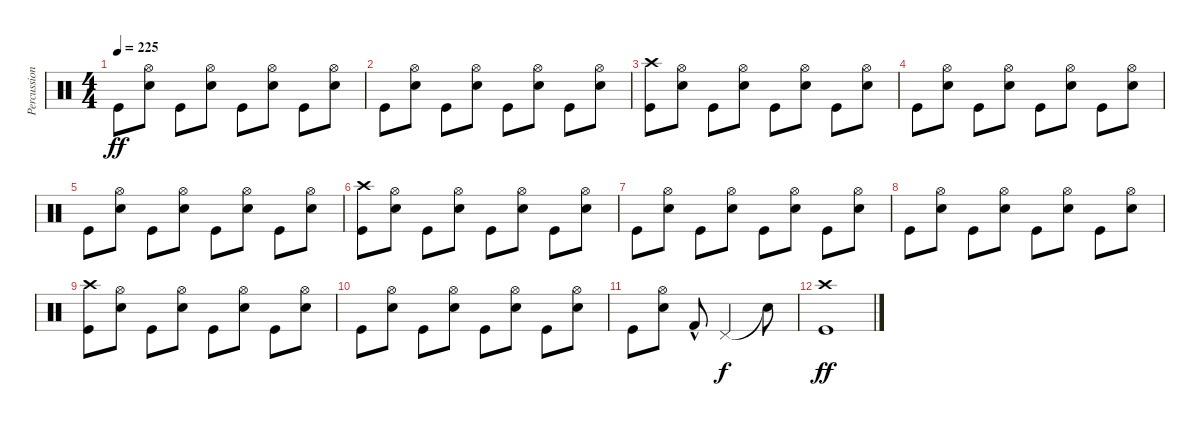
\track ("Percussions" "Percussion") {instrument percussion}
\staff {score}
\articulation defaults
\ts (4 4)
\tempo 225
\clef neutral
\ks c "Kick (hit)".8{dy ff}
("Electric Snare (hit)" "Hi-Hat (open)").8 "Kick (hit)".8 ("Electric Snare (hit)" "Hi-Hat (open)").8 "Kick (hit)".8 ("Electric Snare (hit)" "Hi-Hat (open)").8 "Kick (hit)".8 ("Electric Snare (hit)" "Hi-Hat (open)").8 |
"Kick (hit)".8 ("Electric Snare (hit)" "Hi-Hat (open)").8 "Kick (hit)".8 ("Electric Snare (hit)" "Hi-Hat (open)").8 "Kick (hit)".8 ("Electric Snare (hit)" "Hi-Hat (open)").8 "Kick (hit)".8 ("Electric Snare (hit)" "Hi-Hat (open)").8 |
("Kick (hit)" "Crash high (hit)").8 ("Electric Snare (hit)" "Hi-Hat (open)").8 "Kick (hit)".8 ("Electric Snare (hit)" "Hi-Hat (open)").8 "Kick (hit)".8 ("Electric Snare (hit)" "Hi-Hat (open)").8 "Kick (hit)".8 ("Electric Snare (hit)" "Hi-Hat (open)").8 |
"Kick (hit)".8 ("Electric Snare (hit)" "Hi-Hat (open)").8 "Kick (hit)".8 ("Electric Snare (hit)" "Hi-Hat (open)").8 "Kick (hit)".8 ("Electric Snare (hit)" "Hi-Hat (open)").8 "Kick (hit)".8 ("Electric Snare (hit)" "Hi-Hat (open)").8 |
"Kick (hit)".8 ("Electric Snare (hit)" "Hi-Hat (open)").8 "Kick (hit)".8 ("Electric Snare (hit)" "Hi-Hat (open)").8 "Kick (hit)".8 ("Electric Snare (hit)" "Hi-Hat (open)").8 "Kick (hit)".8 ("Electric Snare (hit)" "Hi-Hat (open)").8 |
("Kick (hit)" "Crash high (hit)").8 ("Electric Snare (hit)" "Hi-Hat (open)").8 "Kick (hit)".8 ("Electric Snare (hit)" "Hi-Hat (open)").8 "Kick (hit)".8 ("Electric Snare (hit)" "Hi-Hat (open)").8 "Kick (hit)".8 ("Electric Snare (hit)" "Hi-Hat (open)").8 |
"Kick (hit)".8 ("Electric Snare (hit)" "Hi-Hat (open)").8 "Kick (hit)".8 ("Electric Snare (hit)" "Hi-Hat (open)").8 "Kick (hit)".8 ("Electric Snare (hit)" "Hi-Hat (open)").8 "Kick (hit)".8 ("Electric Snare (hit)" "Hi-Hat (open)").8 |
"Kick (hit)".8 ("Electric Snare (hit)" "Hi-Hat (open)").8 "Kick (hit)".8 ("Electric Snare (hit)" "Hi-Hat (open)").8 "Kick (hit)".8 ("Electric Snare (hit)" "Hi-Hat (open)").8 "Kick (hit)".8 ("Electric Snare (hit)" "Hi-Hat (open)").8 |
("Kick (hit)" "Crash high (hit)").8 ("Electric Snare (hit)" "Hi-Hat (open)").8 "Kick (hit)".8 ("Electric Snare (hit)" "Hi-Hat (open)").8 "Kick (hit)".8 ("Electric Snare (hit)" "Hi-Hat (open)").8 "Kick (hit)".8 ("Electric Snare (hit)" "Hi-Hat (open)").8 |
"Kick (hit)".8 ("Electric Snare (hit)" "Hi-Hat (open)").8 "Kick (hit)".8 ("Electric Snare (hit)" "Hi-Hat (open)").8 "Kick (hit)".8 ("Electric Snare (hit)" "Hi-Hat (open)").8 "Kick (hit)".8 ("Electric Snare (hit)" "Hi-Hat (open)").8 |
"Kick (hit)".8 ("Electric Snare (hit)" "Hi-Hat (open)").8 "Kick (hit) 2"{hac}.8 "Pedal Hi-Hat (hit)".2{dy f} "Snare (hit)"{t}.8 |
("Kick (hit)" "Crash high (hit)").1{dy ff}
